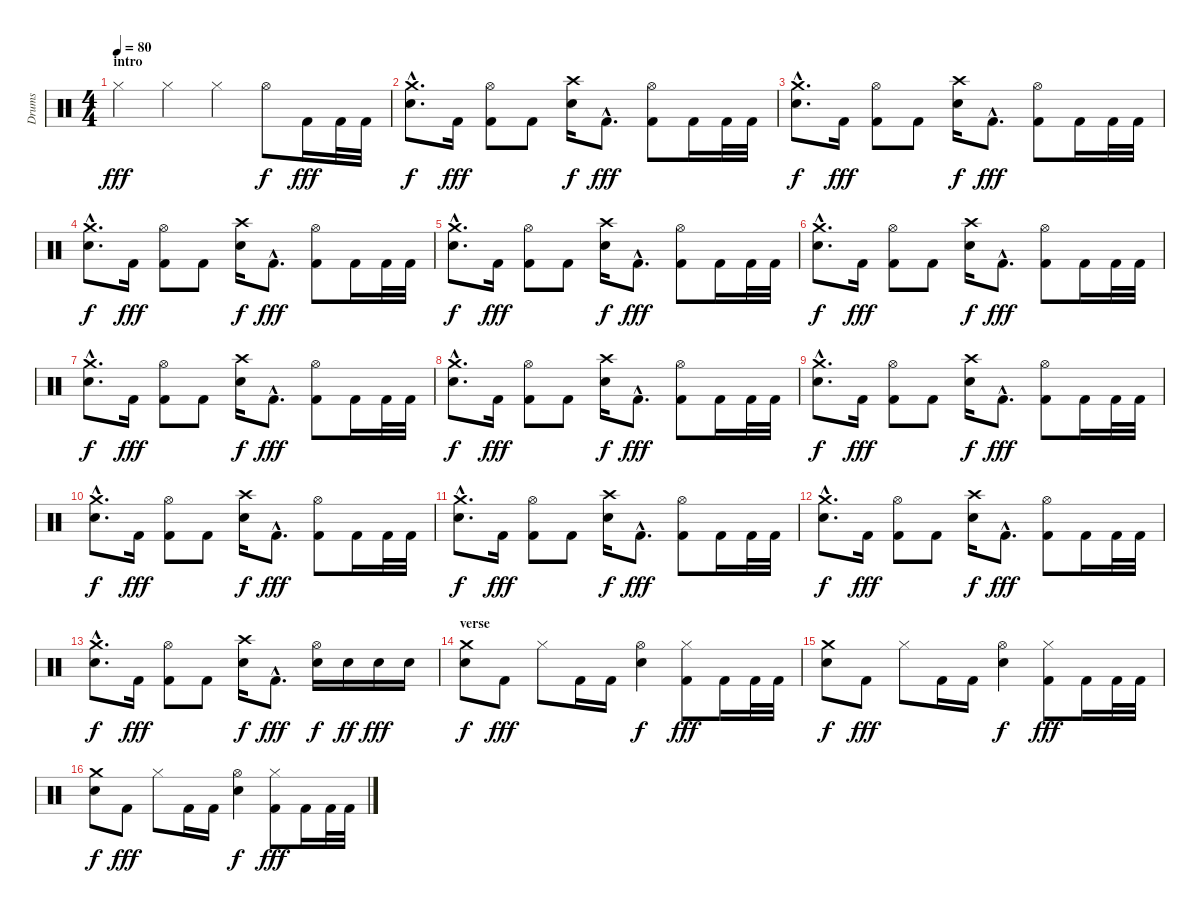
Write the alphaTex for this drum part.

\track ("Drums" "Drums") {instrument percussion}
\staff {score}
\articulation defaults
\ts (4 4)
\section ("" "intro")
\tempo 80
\clef neutral
\ks c "Hi-Hat (closed)".4{dy fff} "Hi-Hat (closed)".4 "Hi-Hat (closed)".4 "Hi-Hat (open)".8{dy f} "Kick (hit) 2".16{dy fff} "Kick (hit) 2".32 "Kick (hit) 2".32
|
("Electric Snare (hit)"{hac} "Crash medium (hit)"{hac}).8{d dy f} "Kick (hit) 2".16{dy fff} ("Hi-Hat (open)" "Kick (hit) 2").8 "Kick (hit) 2".8 ("Crash high (hit)" "Electric Snare (hit)").16{dy f} "Kick (hit) 2"{hac}.8{d dy fff} ("Hi-Hat (open)" "Kick (hit) 2").8 "Kick (hit) 2".16 "Kick (hit) 2".32 "Kick (hit) 2".32 |
("Electric Snare (hit)"{hac} "Crash medium (hit)"{hac}).8{d dy f} "Kick (hit) 2".16{dy fff} ("Hi-Hat (open)" "Kick (hit) 2").8 "Kick (hit) 2".8 ("Crash high (hit)" "Electric Snare (hit)").16{dy f} "Kick (hit) 2"{hac}.8{d dy fff} ("Hi-Hat (open)" "Kick (hit) 2").8 "Kick (hit) 2".16 "Kick (hit) 2".32 "Kick (hit) 2".32 |
("Electric Snare (hit)"{hac} "Crash medium (hit)"{hac}).8{d dy f} "Kick (hit) 2".16{dy fff} ("Hi-Hat (open)" "Kick (hit) 2").8 "Kick (hit) 2".8 ("Crash high (hit)" "Electric Snare (hit)").16{dy f} "Kick (hit) 2"{hac}.8{d dy fff} ("Hi-Hat (open)" "Kick (hit) 2").8 "Kick (hit) 2".16 "Kick (hit) 2".32 "Kick (hit) 2".32 |
("Electric Snare (hit)"{hac} "Crash medium (hit)"{hac}).8{d dy f} "Kick (hit) 2".16{dy fff} ("Hi-Hat (open)" "Kick (hit) 2").8 "Kick (hit) 2".8 ("Crash high (hit)" "Electric Snare (hit)").16{dy f} "Kick (hit) 2"{hac}.8{d dy fff} ("Hi-Hat (open)" "Kick (hit) 2").8 "Kick (hit) 2".16 "Kick (hit) 2".32 "Kick (hit) 2".32 |
("Electric Snare (hit)"{hac} "Crash medium (hit)"{hac}).8{d dy f} "Kick (hit) 2".16{dy fff} ("Hi-Hat (open)" "Kick (hit) 2").8 "Kick (hit) 2".8 ("Crash high (hit)" "Electric Snare (hit)").16{dy f} "Kick (hit) 2"{hac}.8{d dy fff} ("Hi-Hat (open)" "Kick (hit) 2").8 "Kick (hit) 2".16 "Kick (hit) 2".32 "Kick (hit) 2".32 |
("Electric Snare (hit)"{hac} "Crash medium (hit)"{hac}).8{d dy f} "Kick (hit) 2".16{dy fff} ("Hi-Hat (open)" "Kick (hit) 2").8 "Kick (hit) 2".8 ("Crash high (hit)" "Electric Snare (hit)").16{dy f} "Kick (hit) 2"{hac}.8{d dy fff} ("Hi-Hat (open)" "Kick (hit) 2").8 "Kick (hit) 2".16 "Kick (hit) 2".32 "Kick (hit) 2".32 |
("Electric Snare (hit)"{hac} "Crash medium (hit)"{hac}).8{d dy f} "Kick (hit) 2".16{dy fff} ("Hi-Hat (open)" "Kick (hit) 2").8 "Kick (hit) 2".8 ("Crash high (hit)" "Electric Snare (hit)").16{dy f} "Kick (hit) 2"{hac}.8{d dy fff} ("Hi-Hat (open)" "Kick (hit) 2").8 "Kick (hit) 2".16 "Kick (hit) 2".32 "Kick (hit) 2".32 |
("Electric Snare (hit)"{hac} "Crash medium (hit)"{hac}).8{d dy f} "Kick (hit) 2".16{dy fff} ("Hi-Hat (open)" "Kick (hit) 2").8 "Kick (hit) 2".8 ("Crash high (hit)" "Electric Snare (hit)").16{dy f} "Kick (hit) 2"{hac}.8{d dy fff} ("Hi-Hat (open)" "Kick (hit) 2").8 "Kick (hit) 2".16 "Kick (hit) 2".32 "Kick (hit) 2".32 |
("Electric Snare (hit)"{hac} "Crash medium (hit)"{hac}).8{d dy f} "Kick (hit) 2".16{dy fff} ("Hi-Hat (open)" "Kick (hit) 2").8 "Kick (hit) 2".8 ("Crash high (hit)" "Electric Snare (hit)").16{dy f} "Kick (hit) 2"{hac}.8{d dy fff} ("Hi-Hat (open)" "Kick (hit) 2").8 "Kick (hit) 2".16 "Kick (hit) 2".32 "Kick (hit) 2".32 |
("Electric Snare (hit)"{hac} "Crash medium (hit)"{hac}).8{d dy f} "Kick (hit) 2".16{dy fff} ("Hi-Hat (open)" "Kick (hit) 2").8 "Kick (hit) 2".8 ("Crash high (hit)" "Electric Snare (hit)").16{dy f} "Kick (hit) 2"{hac}.8{d dy fff} ("Hi-Hat (open)" "Kick (hit) 2").8 "Kick (hit) 2".16 "Kick (hit) 2".32 "Kick (hit) 2".32 |
("Electric Snare (hit)"{hac} "Crash medium (hit)"{hac}).8{d dy f} "Kick (hit) 2".16{dy fff} ("Hi-Hat (open)" "Kick (hit) 2").8 "Kick (hit) 2".8 ("Crash high (hit)" "Electric Snare (hit)").16{dy f} "Kick (hit) 2"{hac}.8{d dy fff} ("Hi-Hat (open)" "Kick (hit) 2").8 "Kick (hit) 2".16 "Kick (hit) 2".32 "Kick (hit) 2".32 |
("Electric Snare (hit)"{hac} "Crash medium (hit)"{hac}).8{d dy f} "Kick (hit) 2".16{dy fff} ("Hi-Hat (open)" "Kick (hit) 2").8 "Kick (hit) 2".8 ("Crash high (hit)" "Electric Snare (hit)").16{dy f} "Kick (hit) 2"{hac}.8{d dy fff} ("Hi-Hat (open)" "Electric Snare (hit)").16{dy f} "Electric Snare (hit)".16{dy ff} "Electric Snare (hit)".16{dy fff} "Electric Snare (hit)".16 |
\section ("" "verse")
("Crash medium (hit)" "Electric Snare (hit)").8{dy f} "Kick (hit) 2".8{dy fff} "Hi-Hat (closed)".8 "Kick (hit) 2".16 "Kick (hit) 2".16 ("Hi-Hat (open)" "Electric Snare (hit)").4{dy f} ("Hi-Hat (closed)" "Kick (hit) 2").8{dy fff} "Kick (hit) 2".16 "Kick (hit) 2".32 "Kick (hit) 2".32 |
("Crash medium (hit)" "Electric Snare (hit)").8{dy f} "Kick (hit) 2".8{dy fff} "Hi-Hat (closed)".8 "Kick (hit) 2".16 "Kick (hit) 2".16 ("Hi-Hat (open)" "Electric Snare (hit)").4{dy f} ("Hi-Hat (closed)" "Kick (hit) 2").8{dy fff} "Kick (hit) 2".16 "Kick (hit) 2".32 "Kick (hit) 2".32 |
("Crash medium (hit)" "Electric Snare (hit)").8{dy f} "Kick (hit) 2".8{dy fff} "Hi-Hat (closed)".8 "Kick (hit) 2".16 "Kick (hit) 2".16 ("Hi-Hat (open)" "Electric Snare (hit)").4{dy f} ("Hi-Hat (closed)" "Kick (hit) 2").8{dy fff} "Kick (hit) 2".16 "Kick (hit) 2".32 "Kick (hit) 2".32
